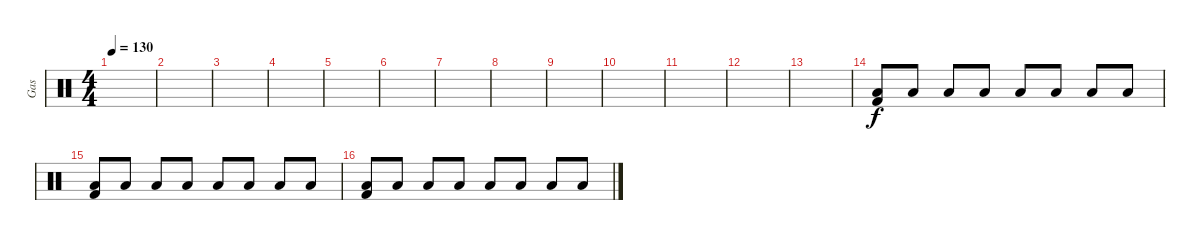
\track ("Gas" "Gas") {instrument percussion}
\staff {score}
\articulation defaults
\ts (4 4)
\tempo 130
\clef neutral
\ks c
|
|
|
|
|
|
|
|
|
|
|
|
|
("Low Floor Tom (hit)" "Kick (hit) 2").8 "Low Floor Tom (hit)".8{volume 10} "Low Floor Tom (hit)".8{volume 11} "Low Floor Tom (hit)".8{volume 11} "Low Floor Tom (hit)".8{volume 11} "Low Floor Tom (hit)".8{volume 11} "Low Floor Tom (hit)".8{volume 11} "Low Floor Tom (hit)".8{volume 12} |
("Low Floor Tom (hit)" "Kick (hit) 2").8{volume 12} "Low Floor Tom (hit)".8{volume 12} "Low Floor Tom (hit)".8{volume 12} "Low Floor Tom (hit)".8{volume 12} "Low Floor Tom (hit)".8{volume 12} "Low Floor Tom (hit)".8{volume 12} "Low Floor Tom (hit)".8{volume 13} "Low Floor Tom (hit)".8{volume 13} |
("Low Floor Tom (hit)" "Kick (hit) 2").8{volume 13} "Low Floor Tom (hit)".8{volume 13} "Low Floor Tom (hit)".8{volume 13} "Low Floor Tom (hit)".8{volume 14} "Low Floor Tom (hit)".8{volume 14} "Low Floor Tom (hit)".8{volume 14} "Low Floor Tom (hit)".8{volume 14} "Low Floor Tom (hit)".8{volume 14}
